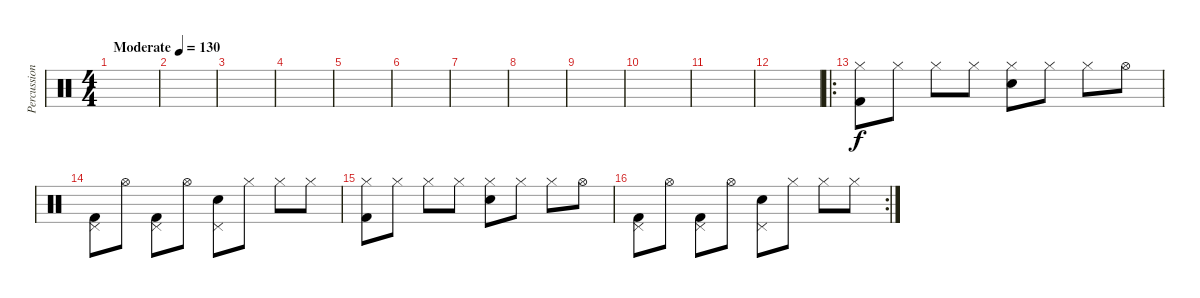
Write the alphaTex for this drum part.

\track ("Percussion" "Percussion") {instrument percussion}
\staff {score}
\articulation defaults
\ts (4 4)
\tempo (130 "Moderate")
\clef neutral
\ks c
|
|
|
|
|
|
|
|
|
|
|
|
\ro
("Hi-Hat (closed)" "Kick (hit) 2").8{volume 8} "Hi-Hat (closed)".8 "Hi-Hat (closed)".8 "Hi-Hat (closed)".8 ("Hi-Hat (closed)" "Snare (hit) 2").8 "Hi-Hat (closed)".8 "Hi-Hat (closed)".8 "Hi-Hat (open)".8 |
("Pedal Hi-Hat (hit)" "Kick (hit) 2").8 "Hi-Hat (open)".8 ("Pedal Hi-Hat (hit)" "Kick (hit) 2").8 "Hi-Hat (open)".8 ("Pedal Hi-Hat (hit)" "Snare (hit) 2").8 "Hi-Hat (closed)".8 "Hi-Hat (closed)".8 "Hi-Hat (closed)".8 |
("Hi-Hat (closed)" "Kick (hit) 2").8 "Hi-Hat (closed)".8 "Hi-Hat (closed)".8 "Hi-Hat (closed)".8 ("Hi-Hat (closed)" "Snare (hit) 2").8 "Hi-Hat (closed)".8 "Hi-Hat (closed)".8 "Hi-Hat (open)".8 |
\rc 2
("Pedal Hi-Hat (hit)" "Kick (hit) 2").8 "Hi-Hat (open)".8 ("Pedal Hi-Hat (hit)" "Kick (hit) 2").8 "Hi-Hat (open)".8 ("Pedal Hi-Hat (hit)" "Snare (hit) 2").8 "Hi-Hat (closed)".8 "Hi-Hat (closed)".8 "Hi-Hat (closed)".8
